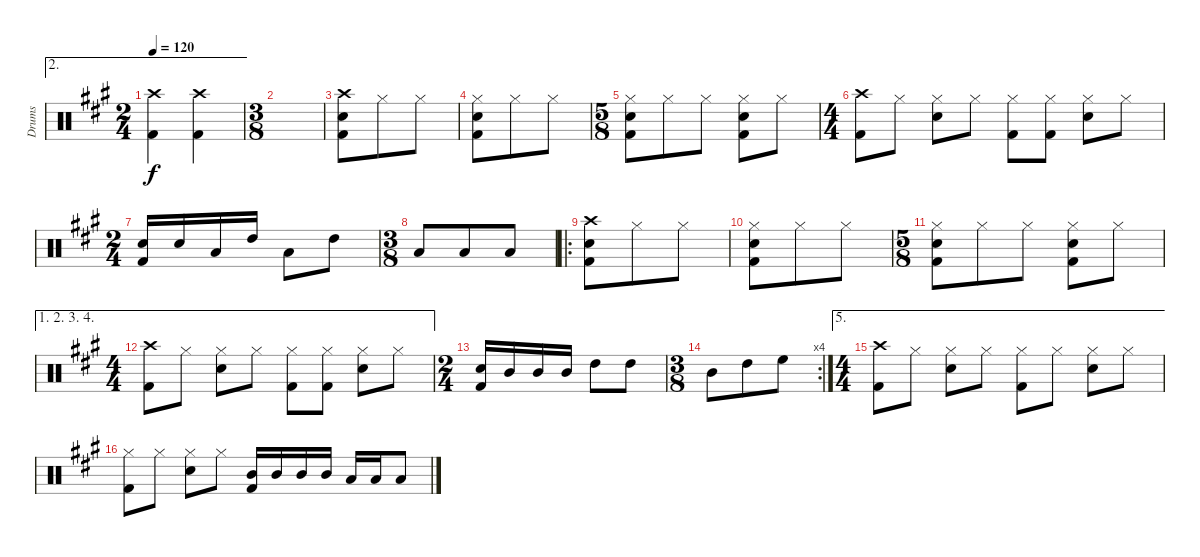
\track ("Drums" "Drums") {instrument percussion}
\staff {score}
\articulation defaults
\ae 2
\ts (2 4)
\tempo 120
\clef neutral
\ks a
("Crash high (hit)" "Kick (hit) 2").4{dy f} ("Crash high (hit)" "Kick (hit) 2").4 |
\ts (3 8)
|
("Crash high (hit)" "Snare (hit) 2" "Kick (hit) 2").8 "Hi-Hat (closed)".8 "Hi-Hat (closed)".8 |
("Hi-Hat (closed)" "Snare (hit) 2" "Kick (hit) 2").8 "Hi-Hat (closed)".8 "Hi-Hat (closed)".8 |
\ts (5 8)
("Hi-Hat (closed)" "Snare (hit) 2" "Kick (hit) 2").8 "Hi-Hat (closed)".8 "Hi-Hat (closed)".8 ("Hi-Hat (closed)" "Snare (hit) 2" "Kick (hit) 2").8 "Hi-Hat (closed)".8 |
\ts (4 4)
("Crash high (hit)" "Kick (hit) 2").8 "Hi-Hat (closed)".8 ("Hi-Hat (closed)" "Snare (hit) 2").8 "Hi-Hat (closed)".8 ("Hi-Hat (closed)" "Kick (hit) 2").8 ("Hi-Hat (closed)" "Kick (hit) 2").8 ("Hi-Hat (closed)" "Snare (hit) 2").8 "Hi-Hat (closed)".8 |
\ts (2 4)
("Snare (hit) 2" "Kick (hit) 2").16 "Snare (hit) 2".16 "Low Tom (hit)".16 "High Tom (hit)".16 "Low Tom (hit)".8 "High Tom (hit)".8 |
\ts (3 8)
"Low Tom (hit)".8 "Low Tom (hit)".8 "Low Tom (hit)".8 |
\ro
("Crash high (hit)" "Snare (hit) 2" "Kick (hit) 2").8 "Hi-Hat (closed)".8 "Hi-Hat (closed)".8 |
("Hi-Hat (closed)" "Snare (hit) 2" "Kick (hit) 2").8 "Hi-Hat (closed)".8 "Hi-Hat (closed)".8 |
\ts (5 8)
("Hi-Hat (closed)" "Snare (hit) 2" "Kick (hit) 2").8 "Hi-Hat (closed)".8 "Hi-Hat (closed)".8 ("Hi-Hat (closed)" "Snare (hit) 2" "Kick (hit) 2").8 "Hi-Hat (closed)".8 |
\ae (1 2 3 4)
\ts (4 4)
("Crash high (hit)" "Kick (hit) 2").8 "Hi-Hat (closed)".8 ("Hi-Hat (closed)" "Snare (hit) 2").8 "Hi-Hat (closed)".8 ("Hi-Hat (closed)" "Kick (hit) 2").8 ("Hi-Hat (closed)" "Kick (hit) 2").8 ("Hi-Hat (closed)" "Snare (hit) 2").8 "Hi-Hat (closed)".8 |
\ts (2 4)
("Snare (hit) 2" "Kick (hit) 2").16 "Mid Tom (hit)".16 "Mid Tom (hit)".16 "Mid Tom (hit)".16 "High Tom (hit)".8 "High Tom (hit)".8 |
\rc 4
\ts (3 8)
"Mid Tom (hit)".8 "High Tom (hit)".8 "High Floor Tom (hit)".8 |
\ae 5
\ts (4 4)
("Crash high (hit)" "Kick (hit) 2").8 "Hi-Hat (closed)".8 ("Hi-Hat (closed)" "Snare (hit) 2").8 "Hi-Hat (closed)".8 ("Hi-Hat (closed)" "Kick (hit) 2").8 "Hi-Hat (closed)".8 ("Hi-Hat (closed)" "Snare (hit) 2").8 "Hi-Hat (closed)".8 |
("Hi-Hat (closed)" "Kick (hit) 2").8 "Hi-Hat (closed)".8 ("Hi-Hat (closed)" "Snare (hit) 2").8 "Hi-Hat (closed)".8 ("Mid Tom (hit)" "Kick (hit) 2").16 "Mid Tom (hit)".16 "Mid Tom (hit)".16 "Mid Tom (hit)".16 "Low Tom (hit)".16 "Low Tom (hit)".16 "Low Tom (hit)".8
